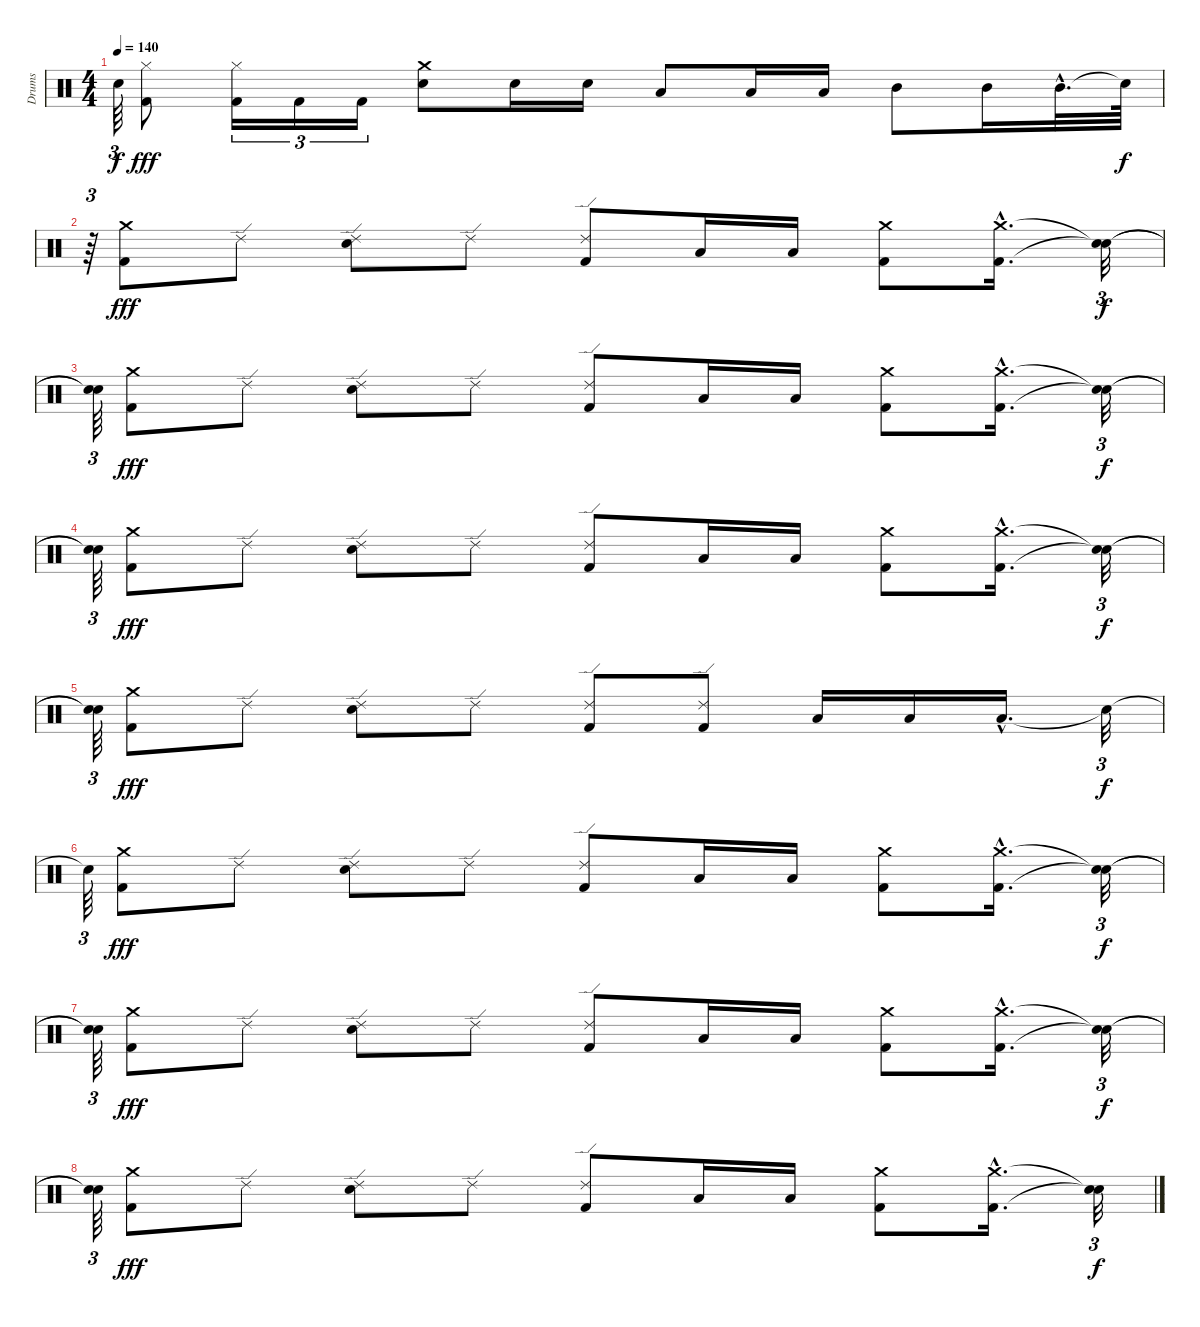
\track ("Drums" "Drums") {instrument percussion}
\staff {score}
\articulation defaults
\ts (4 4)
\tempo 140
\clef neutral
\ks c "Snare (hit)"{t}.64{tu (3 2) dy f}
("Hi-Hat (closed)" "Kick (hit) 2").8{dy fff} ("Hi-Hat (closed)" "Kick (hit) 2").16{tu (3 2)} "Kick (hit) 2".16{tu (3 2)} "Kick (hit) 2".16{tu (3 2)} ("Snare (hit) 2" "Crash medium (hit)").8 "Snare (hit) 2".16 "Snare (hit) 2".16 "Low Tom (hit)".8 "Low Tom (hit)".16 "Low Tom (hit)".16 "Mid Tom (hit)".8 "Mid Tom (hit)".16 "Mid Tom (hit)"{hac}.32{d} "Snare (hit)"{t}.64{dy f} |
r.64{tu (3 2)} ("Crash medium (hit)" "Kick (hit) 2").8{dy fff} "Ride (edge) 2".8 ("Snare (hit) 2" "Ride (edge) 2").8 "Ride (edge) 2".8 ("Ride (edge) 2" "Kick (hit) 2").8 "Low Tom (hit)".16 "Low Tom (hit)".16 ("Crash medium (hit)" "Kick (hit) 2").8 ("Crash medium (hit)"{hac} "Kick (hit) 2"{hac}).16{d} ("Snare (hit)"{t} "Snare (hit)"{t}).32{tu (3 2) dy f} |
("Snare (hit)"{t} "Snare (hit)"{t}).64{tu (3 2)} ("Crash medium (hit)" "Kick (hit) 2").8{dy fff} "Ride (edge) 2".8 ("Snare (hit) 2" "Ride (edge) 2").8 "Ride (edge) 2".8 ("Ride (edge) 2" "Kick (hit) 2").8 "Low Tom (hit)".16 "Low Tom (hit)".16 ("Crash medium (hit)" "Kick (hit) 2").8 ("Crash medium (hit)"{hac} "Kick (hit) 2"{hac}).16{d} ("Snare (hit)"{t} "Snare (hit)"{t}).32{tu (3 2) dy f} |
("Snare (hit)"{t} "Snare (hit)"{t}).64{tu (3 2)} ("Crash medium (hit)" "Kick (hit) 2").8{dy fff} "Ride (edge) 2".8 ("Snare (hit) 2" "Ride (edge) 2").8 "Ride (edge) 2".8 ("Ride (edge) 2" "Kick (hit) 2").8 "Low Tom (hit)".16 "Low Tom (hit)".16 ("Crash medium (hit)" "Kick (hit) 2").8 ("Crash medium (hit)"{hac} "Kick (hit) 2"{hac}).16{d} ("Snare (hit)"{t} "Snare (hit)"{t}).32{tu (3 2) dy f} |
("Snare (hit)"{t} "Snare (hit)"{t}).64{tu (3 2)} ("Crash medium (hit)" "Kick (hit) 2").8{dy fff} "Ride (edge) 2".8 ("Snare (hit) 2" "Ride (edge) 2").8 "Ride (edge) 2".8 ("Kick (hit) 2" "Ride (edge) 2").8 ("Ride (edge) 2" "Kick (hit) 2").8 "Low Tom (hit)".16 "Low Tom (hit)".16 "Low Tom (hit)"{hac}.16{d} "Snare (hit)"{t}.32{tu (3 2) dy f} |
"Snare (hit)"{t}.64{tu (3 2)} ("Crash medium (hit)" "Kick (hit) 2").8{dy fff} "Ride (edge) 2".8 ("Snare (hit) 2" "Ride (edge) 2").8 "Ride (edge) 2".8 ("Ride (edge) 2" "Kick (hit) 2").8 "Low Tom (hit)".16 "Low Tom (hit)".16 ("Crash medium (hit)" "Kick (hit) 2").8 ("Crash medium (hit)"{hac} "Kick (hit) 2"{hac}).16{d} ("Snare (hit)"{t} "Snare (hit)"{t}).32{tu (3 2) dy f} |
("Snare (hit)"{t} "Snare (hit)"{t}).64{tu (3 2)} ("Crash medium (hit)" "Kick (hit) 2").8{dy fff} "Ride (edge) 2".8 ("Snare (hit) 2" "Ride (edge) 2").8 "Ride (edge) 2".8 ("Ride (edge) 2" "Kick (hit) 2").8 "Low Tom (hit)".16 "Low Tom (hit)".16 ("Crash medium (hit)" "Kick (hit) 2").8 ("Crash medium (hit)"{hac} "Kick (hit) 2"{hac}).16{d} ("Snare (hit)"{t} "Snare (hit)"{t}).32{tu (3 2) dy f} |
("Snare (hit)"{t} "Snare (hit)"{t}).64{tu (3 2)} ("Crash medium (hit)" "Kick (hit) 2").8{dy fff} "Ride (edge) 2".8 ("Snare (hit) 2" "Ride (edge) 2").8 "Ride (edge) 2".8 ("Ride (edge) 2" "Kick (hit) 2").8 "Low Tom (hit)".16 "Low Tom (hit)".16 ("Crash medium (hit)" "Kick (hit) 2").8 ("Crash medium (hit)"{hac} "Kick (hit) 2"{hac}).16{d} ("Snare (hit)"{t} "Snare (hit)"{t}).32{tu (3 2) dy f}
